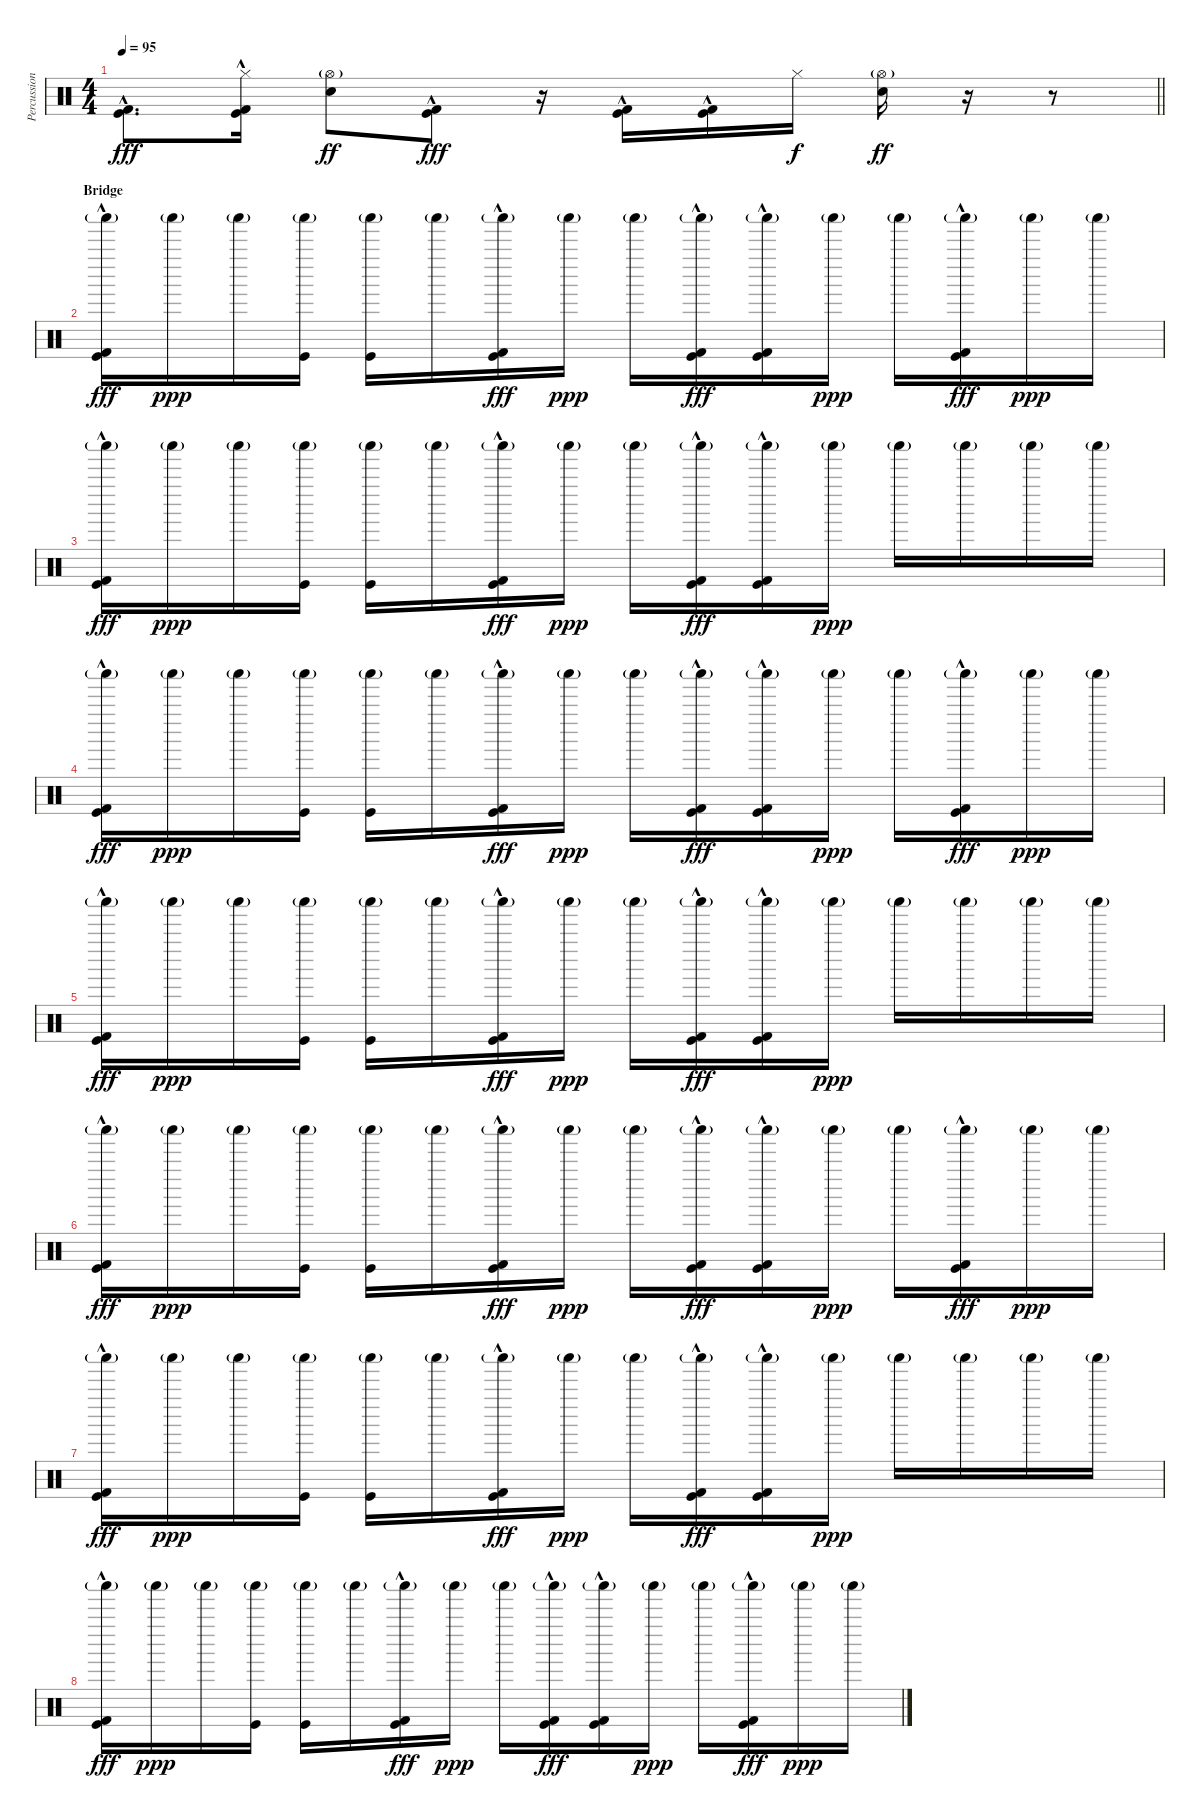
\track ("Percussion" "Percussion") {instrument percussion}
\staff {score}
\articulation defaults
\ts (4 4)
\tempo 95
\clef neutral
\barLineRight lightlight
\ks c
("Kick (hit) 2"{hac} "Kick (hit)"{hac}).8{d dy fff} ("Hi-Hat (closed)" "Kick (hit) 2"{hac} "Kick (hit)"{hac}).16 ("Hi-Hat (open)"{g} "Electric Snare (hit)").8{dy ff} ("Kick (hit) 2"{hac} "Kick (hit)"{hac}).8{dy fff} r.16 ("Kick (hit) 2"{hac} "Kick (hit)"{hac}).16 ("Kick (hit) 2"{hac} "Kick (hit)"{hac}).16 "Hi-Hat (closed)".16{dy f} ("Hi-Hat (open)"{g} "Electric Snare (hit)").16{dy ff} r.16 r.8 |
\section ("" "Bridge")
("Shaker (hit)"{g} "Kick (hit) 2" "Kick (hit)"{hac}).16{dy fff} "Shaker (hit)"{g}.16{dy ppp} "Shaker (hit)"{g}.16 ("Shaker (hit)"{g} "Kick (hit)").16 ("Shaker (hit)"{g} "Kick (hit)").16 "Shaker (hit)"{g}.16 ("Shaker (hit)"{g} "Kick (hit) 2"{hac} "Kick (hit)"{hac}).16{dy fff} "Shaker (hit)"{g}.16{dy ppp} "Shaker (hit)"{g}.16 ("Shaker (hit)"{g} "Kick (hit) 2"{hac} "Kick (hit)"{hac}).16{dy fff} ("Shaker (hit)"{g} "Kick (hit) 2"{hac} "Kick (hit)"{hac}).16 "Shaker (hit)"{g}.16{dy ppp} "Shaker (hit)"{g}.16 ("Shaker (hit)"{g} "Kick (hit) 2"{hac} "Kick (hit)"{hac}).16{dy fff} "Shaker (hit)"{g}.16{dy ppp} "Shaker (hit)"{g}.16 |
("Shaker (hit)"{g} "Kick (hit) 2" "Kick (hit)"{hac}).16{dy fff} "Shaker (hit)"{g}.16{dy ppp} "Shaker (hit)"{g}.16 ("Shaker (hit)"{g} "Kick (hit)").16 ("Shaker (hit)"{g} "Kick (hit)").16 "Shaker (hit)"{g}.16 ("Shaker (hit)"{g} "Kick (hit) 2"{hac} "Kick (hit)"{hac}).16{dy fff} "Shaker (hit)"{g}.16{dy ppp} "Shaker (hit)"{g}.16 ("Shaker (hit)"{g} "Kick (hit) 2"{hac} "Kick (hit)"{hac}).16{dy fff} ("Shaker (hit)"{g} "Kick (hit) 2"{hac} "Kick (hit)"{hac}).16 "Shaker (hit)"{g}.16{dy ppp} "Shaker (hit)"{g}.16 "Shaker (hit)"{g}.16 "Shaker (hit)"{g}.16 "Shaker (hit)"{g}.16 |
("Shaker (hit)"{g} "Kick (hit) 2" "Kick (hit)"{hac}).16{dy fff} "Shaker (hit)"{g}.16{dy ppp} "Shaker (hit)"{g}.16 ("Shaker (hit)"{g} "Kick (hit)").16 ("Shaker (hit)"{g} "Kick (hit)").16 "Shaker (hit)"{g}.16 ("Shaker (hit)"{g} "Kick (hit) 2"{hac} "Kick (hit)"{hac}).16{dy fff} "Shaker (hit)"{g}.16{dy ppp} "Shaker (hit)"{g}.16 ("Shaker (hit)"{g} "Kick (hit) 2"{hac} "Kick (hit)"{hac}).16{dy fff} ("Shaker (hit)"{g} "Kick (hit) 2"{hac} "Kick (hit)"{hac}).16 "Shaker (hit)"{g}.16{dy ppp} "Shaker (hit)"{g}.16 ("Shaker (hit)"{g} "Kick (hit) 2"{hac} "Kick (hit)"{hac}).16{dy fff} "Shaker (hit)"{g}.16{dy ppp} "Shaker (hit)"{g}.16 |
("Shaker (hit)"{g} "Kick (hit) 2" "Kick (hit)"{hac}).16{dy fff} "Shaker (hit)"{g}.16{dy ppp} "Shaker (hit)"{g}.16 ("Shaker (hit)"{g} "Kick (hit)").16 ("Shaker (hit)"{g} "Kick (hit)").16 "Shaker (hit)"{g}.16 ("Shaker (hit)"{g} "Kick (hit) 2"{hac} "Kick (hit)"{hac}).16{dy fff} "Shaker (hit)"{g}.16{dy ppp} "Shaker (hit)"{g}.16 ("Shaker (hit)"{g} "Kick (hit) 2"{hac} "Kick (hit)"{hac}).16{dy fff} ("Shaker (hit)"{g} "Kick (hit) 2"{hac} "Kick (hit)"{hac}).16 "Shaker (hit)"{g}.16{dy ppp} "Shaker (hit)"{g}.16 "Shaker (hit)"{g}.16 "Shaker (hit)"{g}.16 "Shaker (hit)"{g}.16 |
("Shaker (hit)"{g} "Kick (hit) 2" "Kick (hit)"{hac}).16{dy fff} "Shaker (hit)"{g}.16{dy ppp} "Shaker (hit)"{g}.16 ("Shaker (hit)"{g} "Kick (hit)").16 ("Shaker (hit)"{g} "Kick (hit)").16 "Shaker (hit)"{g}.16 ("Shaker (hit)"{g} "Kick (hit) 2"{hac} "Kick (hit)"{hac}).16{dy fff} "Shaker (hit)"{g}.16{dy ppp} "Shaker (hit)"{g}.16 ("Shaker (hit)"{g} "Kick (hit) 2"{hac} "Kick (hit)"{hac}).16{dy fff} ("Shaker (hit)"{g} "Kick (hit) 2"{hac} "Kick (hit)"{hac}).16 "Shaker (hit)"{g}.16{dy ppp} "Shaker (hit)"{g}.16 ("Shaker (hit)"{g} "Kick (hit) 2"{hac} "Kick (hit)"{hac}).16{dy fff} "Shaker (hit)"{g}.16{dy ppp} "Shaker (hit)"{g}.16 |
("Shaker (hit)"{g} "Kick (hit) 2" "Kick (hit)"{hac}).16{dy fff} "Shaker (hit)"{g}.16{dy ppp} "Shaker (hit)"{g}.16 ("Shaker (hit)"{g} "Kick (hit)").16 ("Shaker (hit)"{g} "Kick (hit)").16 "Shaker (hit)"{g}.16 ("Shaker (hit)"{g} "Kick (hit) 2"{hac} "Kick (hit)"{hac}).16{dy fff} "Shaker (hit)"{g}.16{dy ppp} "Shaker (hit)"{g}.16 ("Shaker (hit)"{g} "Kick (hit) 2"{hac} "Kick (hit)"{hac}).16{dy fff} ("Shaker (hit)"{g} "Kick (hit) 2"{hac} "Kick (hit)"{hac}).16 "Shaker (hit)"{g}.16{dy ppp} "Shaker (hit)"{g}.16 "Shaker (hit)"{g}.16 "Shaker (hit)"{g}.16 "Shaker (hit)"{g}.16 |
("Shaker (hit)"{g} "Kick (hit) 2" "Kick (hit)"{hac}).16{dy fff} "Shaker (hit)"{g}.16{dy ppp} "Shaker (hit)"{g}.16 ("Shaker (hit)"{g} "Kick (hit)").16 ("Shaker (hit)"{g} "Kick (hit)").16 "Shaker (hit)"{g}.16 ("Shaker (hit)"{g} "Kick (hit) 2"{hac} "Kick (hit)"{hac}).16{dy fff} "Shaker (hit)"{g}.16{dy ppp} "Shaker (hit)"{g}.16 ("Shaker (hit)"{g} "Kick (hit) 2"{hac} "Kick (hit)"{hac}).16{dy fff} ("Shaker (hit)"{g} "Kick (hit) 2"{hac} "Kick (hit)"{hac}).16 "Shaker (hit)"{g}.16{dy ppp} "Shaker (hit)"{g}.16 ("Shaker (hit)"{g} "Kick (hit) 2"{hac} "Kick (hit)"{hac}).16{dy fff} "Shaker (hit)"{g}.16{dy ppp} "Shaker (hit)"{g}.16
